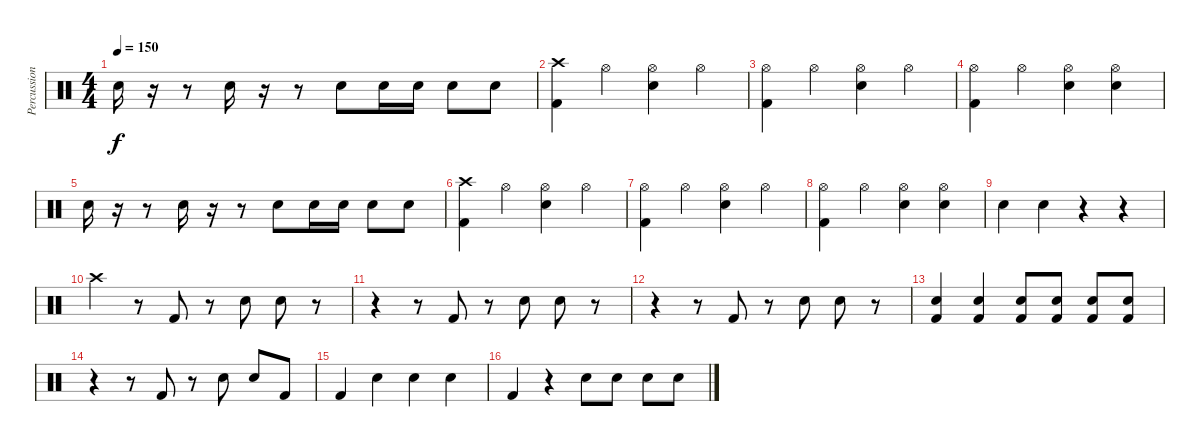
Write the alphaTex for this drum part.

\track ("Percussion" "Percussion") {instrument percussion}
\staff {score}
\articulation defaults
\ts (4 4)
\tempo 150
\clef neutral
\ks c "Snare (hit) 2".16{dy f}
r.16 r.8 "Snare (hit) 2".16 r.16 r.8 "Snare (hit) 2".8 "Snare (hit) 2".16 "Snare (hit) 2".16 "Snare (hit) 2".8 "Snare (hit) 2".8 |
("Crash high (hit)" "Kick (hit) 2").4 "Hi-Hat (open)".4 ("Hi-Hat (open)" "Electric Snare (hit)").4 "Hi-Hat (open)".4 |
("Hi-Hat (open)" "Kick (hit) 2").4 "Hi-Hat (open)".4 ("Hi-Hat (open)" "Electric Snare (hit)").4 "Hi-Hat (open)".4 |
("Hi-Hat (open)" "Kick (hit) 2").4 "Hi-Hat (open)".4 ("Hi-Hat (open)" "Electric Snare (hit)").4 ("Hi-Hat (open)" "Electric Snare (hit)").4 |
"Snare (hit) 2".16 r.16 r.8 "Snare (hit) 2".16 r.16 r.8 "Snare (hit) 2".8 "Snare (hit) 2".16 "Snare (hit) 2".16 "Snare (hit) 2".8 "Snare (hit) 2".8 |
("Crash high (hit)" "Kick (hit) 2").4 "Hi-Hat (open)".4 ("Hi-Hat (open)" "Electric Snare (hit)").4 "Hi-Hat (open)".4 |
("Hi-Hat (open)" "Kick (hit) 2").4 "Hi-Hat (open)".4 ("Hi-Hat (open)" "Electric Snare (hit)").4 "Hi-Hat (open)".4 |
("Hi-Hat (open)" "Kick (hit) 2").4 "Hi-Hat (open)".4 ("Hi-Hat (open)" "Electric Snare (hit)").4 ("Hi-Hat (open)" "Electric Snare (hit)").4 |
"Electric Snare (hit)".4 "Electric Snare (hit)".4 r.4 r.4 |
"Crash high (hit)".4 r.8 "Kick (hit) 2".8 r.8 "Snare (hit) 2".8 "Snare (hit) 2".8 r.8 |
r.4 r.8 "Kick (hit) 2".8 r.8 "Snare (hit) 2".8 "Snare (hit) 2".8 r.8 |
r.4 r.8 "Kick (hit) 2".8 r.8 "Snare (hit) 2".8 "Snare (hit) 2".8 r.8 |
("Snare (hit) 2" "Kick (hit) 2").4 ("Snare (hit) 2" "Kick (hit) 2").4 ("Snare (hit) 2" "Kick (hit) 2").8 ("Snare (hit) 2" "Kick (hit) 2").8 ("Snare (hit) 2" "Kick (hit) 2").8 ("Snare (hit) 2" "Kick (hit) 2").8 |
r.4 r.8 "Kick (hit) 2".8 r.8 "Snare (hit) 2".8 "Snare (hit) 2".8 "Kick (hit) 2".8 |
"Kick (hit) 2".4 "Snare (hit) 2".4 "Snare (hit) 2".4 "Snare (hit) 2".4 |
"Kick (hit) 2".4 r.4 "Snare (hit) 2".8 "Snare (hit) 2".8 "Snare (hit) 2".8 "Snare (hit) 2".8
